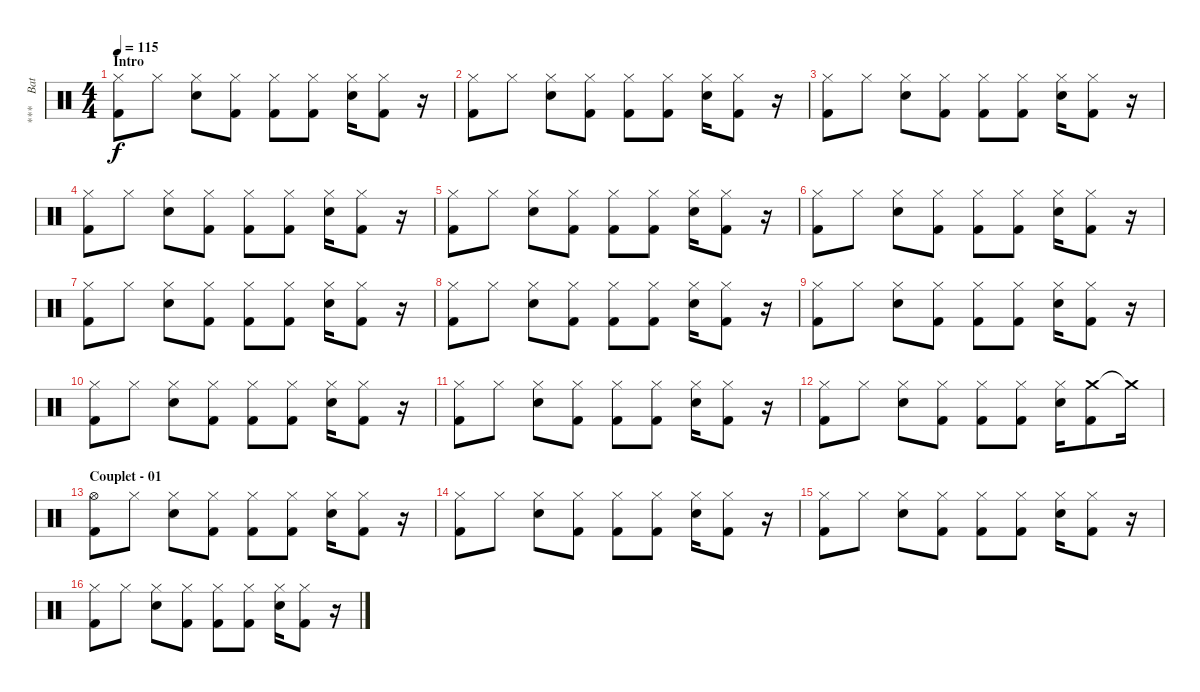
\track ("***    Batterie     ***" "***    Bat") {instrument percussion}
\staff {score}
\articulation defaults
\ts (4 4)
\section ("" "Intro")
\tempo 115
\clef neutral
\ks c
("Hi-Hat (closed)" "Kick (hit) 2").8{dy f} "Hi-Hat (closed)".8 ("Hi-Hat (closed)" "Snare (hit) 2").8 ("Hi-Hat (closed)" "Kick (hit) 2").8 ("Hi-Hat (closed)" "Kick (hit) 2").8 ("Hi-Hat (closed)" "Kick (hit) 2").8 ("Hi-Hat (closed)" "Snare (hit) 2").16 ("Hi-Hat (closed)" "Kick (hit) 2").8 r.16 |
("Hi-Hat (closed)" "Kick (hit) 2").8 "Hi-Hat (closed)".8 ("Hi-Hat (closed)" "Snare (hit) 2").8 ("Hi-Hat (closed)" "Kick (hit) 2").8 ("Hi-Hat (closed)" "Kick (hit) 2").8 ("Hi-Hat (closed)" "Kick (hit) 2").8 ("Hi-Hat (closed)" "Snare (hit) 2").16 ("Hi-Hat (closed)" "Kick (hit) 2").8 r.16 |
("Hi-Hat (closed)" "Kick (hit) 2").8 "Hi-Hat (closed)".8 ("Hi-Hat (closed)" "Snare (hit) 2").8 ("Hi-Hat (closed)" "Kick (hit) 2").8 ("Hi-Hat (closed)" "Kick (hit) 2").8 ("Hi-Hat (closed)" "Kick (hit) 2").8 ("Hi-Hat (closed)" "Snare (hit) 2").16 ("Hi-Hat (closed)" "Kick (hit) 2").8 r.16 |
("Hi-Hat (closed)" "Kick (hit) 2").8 "Hi-Hat (closed)".8 ("Hi-Hat (closed)" "Snare (hit) 2").8 ("Hi-Hat (closed)" "Kick (hit) 2").8 ("Hi-Hat (closed)" "Kick (hit) 2").8 ("Hi-Hat (closed)" "Kick (hit) 2").8 ("Hi-Hat (closed)" "Snare (hit) 2").16 ("Hi-Hat (closed)" "Kick (hit) 2").8 r.16 |
("Hi-Hat (closed)" "Kick (hit) 2").8 "Hi-Hat (closed)".8 ("Hi-Hat (closed)" "Snare (hit) 2").8 ("Hi-Hat (closed)" "Kick (hit) 2").8 ("Hi-Hat (closed)" "Kick (hit) 2").8 ("Hi-Hat (closed)" "Kick (hit) 2").8 ("Hi-Hat (closed)" "Snare (hit) 2").16 ("Hi-Hat (closed)" "Kick (hit) 2").8 r.16 |
("Hi-Hat (closed)" "Kick (hit) 2").8 "Hi-Hat (closed)".8 ("Hi-Hat (closed)" "Snare (hit) 2").8 ("Hi-Hat (closed)" "Kick (hit) 2").8 ("Hi-Hat (closed)" "Kick (hit) 2").8 ("Hi-Hat (closed)" "Kick (hit) 2").8 ("Hi-Hat (closed)" "Snare (hit) 2").16 ("Hi-Hat (closed)" "Kick (hit) 2").8 r.16 |
("Hi-Hat (closed)" "Kick (hit) 2").8 "Hi-Hat (closed)".8 ("Hi-Hat (closed)" "Snare (hit) 2").8 ("Hi-Hat (closed)" "Kick (hit) 2").8 ("Hi-Hat (closed)" "Kick (hit) 2").8 ("Hi-Hat (closed)" "Kick (hit) 2").8 ("Hi-Hat (closed)" "Snare (hit) 2").16 ("Hi-Hat (closed)" "Kick (hit) 2").8 r.16 |
("Hi-Hat (closed)" "Kick (hit) 2").8 "Hi-Hat (closed)".8 ("Hi-Hat (closed)" "Snare (hit) 2").8 ("Hi-Hat (closed)" "Kick (hit) 2").8 ("Hi-Hat (closed)" "Kick (hit) 2").8 ("Hi-Hat (closed)" "Kick (hit) 2").8 ("Hi-Hat (closed)" "Snare (hit) 2").16 ("Hi-Hat (closed)" "Kick (hit) 2").8 r.16 |
("Hi-Hat (closed)" "Kick (hit) 2").8 "Hi-Hat (closed)".8 ("Hi-Hat (closed)" "Snare (hit) 2").8 ("Hi-Hat (closed)" "Kick (hit) 2").8 ("Hi-Hat (closed)" "Kick (hit) 2").8 ("Hi-Hat (closed)" "Kick (hit) 2").8 ("Hi-Hat (closed)" "Snare (hit) 2").16 ("Hi-Hat (closed)" "Kick (hit) 2").8 r.16 |
("Hi-Hat (closed)" "Kick (hit) 2").8 "Hi-Hat (closed)".8 ("Hi-Hat (closed)" "Snare (hit) 2").8 ("Hi-Hat (closed)" "Kick (hit) 2").8 ("Hi-Hat (closed)" "Kick (hit) 2").8 ("Hi-Hat (closed)" "Kick (hit) 2").8 ("Hi-Hat (closed)" "Snare (hit) 2").16 ("Hi-Hat (closed)" "Kick (hit) 2").8 r.16 |
("Hi-Hat (closed)" "Kick (hit) 2").8 "Hi-Hat (closed)".8 ("Hi-Hat (closed)" "Snare (hit) 2").8 ("Hi-Hat (closed)" "Kick (hit) 2").8 ("Hi-Hat (closed)" "Kick (hit) 2").8 ("Hi-Hat (closed)" "Kick (hit) 2").8 ("Hi-Hat (closed)" "Snare (hit) 2").16 ("Hi-Hat (closed)" "Kick (hit) 2").8 r.16 |
("Hi-Hat (closed)" "Kick (hit) 2").8 "Hi-Hat (closed)".8 ("Hi-Hat (closed)" "Snare (hit) 2").8 ("Hi-Hat (closed)" "Kick (hit) 2").8 ("Hi-Hat (closed)" "Kick (hit) 2").8 ("Hi-Hat (closed)" "Kick (hit) 2").8 ("Hi-Hat (closed)" "Snare (hit) 2").16 ("Crash medium (hit)" "Kick (hit) 2").8 "Crash medium (hit)"{t}.16 |
\section ("" "Couplet - 01")
("Hi-Hat (open)" "Kick (hit) 2").8 "Hi-Hat (closed)".8 ("Hi-Hat (closed)" "Snare (hit) 2").8 ("Hi-Hat (closed)" "Kick (hit) 2").8 ("Hi-Hat (closed)" "Kick (hit) 2").8 ("Hi-Hat (closed)" "Kick (hit) 2").8 ("Hi-Hat (closed)" "Snare (hit) 2").16 ("Hi-Hat (closed)" "Kick (hit) 2").8 r.16 |
("Hi-Hat (closed)" "Kick (hit) 2").8 "Hi-Hat (closed)".8 ("Hi-Hat (closed)" "Snare (hit) 2").8 ("Hi-Hat (closed)" "Kick (hit) 2").8 ("Hi-Hat (closed)" "Kick (hit) 2").8 ("Hi-Hat (closed)" "Kick (hit) 2").8 ("Hi-Hat (closed)" "Snare (hit) 2").16 ("Hi-Hat (closed)" "Kick (hit) 2").8 r.16 |
("Hi-Hat (closed)" "Kick (hit) 2").8 "Hi-Hat (closed)".8 ("Hi-Hat (closed)" "Snare (hit) 2").8 ("Hi-Hat (closed)" "Kick (hit) 2").8 ("Hi-Hat (closed)" "Kick (hit) 2").8 ("Hi-Hat (closed)" "Kick (hit) 2").8 ("Hi-Hat (closed)" "Snare (hit) 2").16 ("Hi-Hat (closed)" "Kick (hit) 2").8 r.16 |
("Hi-Hat (closed)" "Kick (hit) 2").8 "Hi-Hat (closed)".8 ("Hi-Hat (closed)" "Snare (hit) 2").8 ("Hi-Hat (closed)" "Kick (hit) 2").8 ("Hi-Hat (closed)" "Kick (hit) 2").8 ("Hi-Hat (closed)" "Kick (hit) 2").8 ("Hi-Hat (closed)" "Snare (hit) 2").16 ("Hi-Hat (closed)" "Kick (hit) 2").8 r.16
